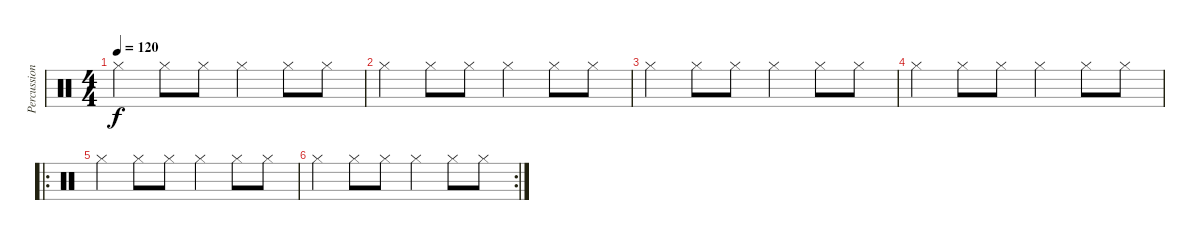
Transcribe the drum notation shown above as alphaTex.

\track ("Percussion" "Percussion") {instrument percussion}
\staff {score}
\articulation defaults
\ts (4 4)
\tempo 120
\clef neutral
\ks c "Hi-Hat (closed)".4{dy f} "Hi-Hat (closed)".8 "Hi-Hat (closed)".8 "Hi-Hat (closed)".4 "Hi-Hat (closed)".8 "Hi-Hat (closed)".8
|
"Hi-Hat (closed)".4 "Hi-Hat (closed)".8 "Hi-Hat (closed)".8 "Hi-Hat (closed)".4 "Hi-Hat (closed)".8 "Hi-Hat (closed)".8 |
"Hi-Hat (closed)".4 "Hi-Hat (closed)".8 "Hi-Hat (closed)".8 "Hi-Hat (closed)".4 "Hi-Hat (closed)".8 "Hi-Hat (closed)".8 |
"Hi-Hat (closed)".4 "Hi-Hat (closed)".8 "Hi-Hat (closed)".8 "Hi-Hat (closed)".4 "Hi-Hat (closed)".8 "Hi-Hat (closed)".8 |
\ro "Hi-Hat (closed)".4 "Hi-Hat (closed)".8 "Hi-Hat (closed)".8 "Hi-Hat (closed)".4 "Hi-Hat (closed)".8 "Hi-Hat (closed)".8
|
\rc 2 "Hi-Hat (closed)".4 "Hi-Hat (closed)".8 "Hi-Hat (closed)".8 "Hi-Hat (closed)".4 "Hi-Hat (closed)".8 "Hi-Hat (closed)".8
